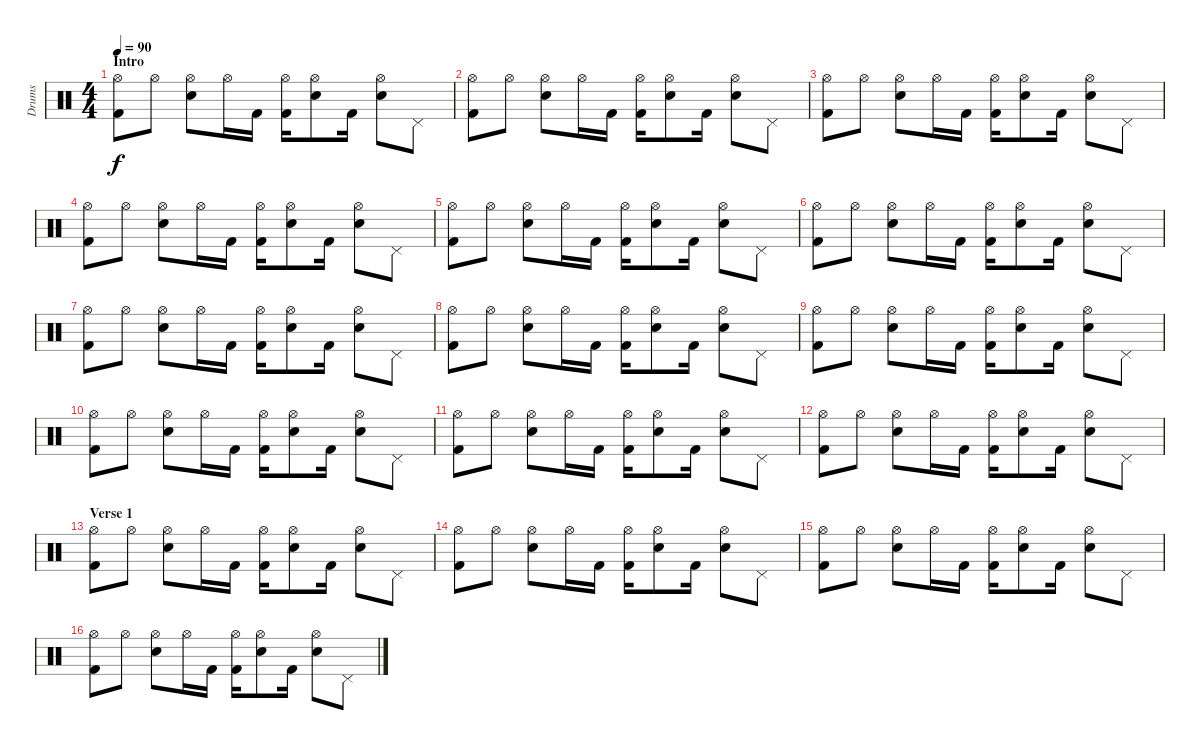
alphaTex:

\track ("Drums" "Drums") {instrument percussion}
\staff {score}
\articulation defaults
\ts (4 4)
\section ("" "Intro")
\tempo 90
\clef neutral
\ks c
("Kick (hit) 2" "Hi-Hat (open)").8{dy f} "Hi-Hat (open)".8 ("Electric Snare (hit)" "Hi-Hat (open)").8 "Hi-Hat (open)".16 "Kick (hit) 2".16 ("Kick (hit) 2" "Hi-Hat (open)").16 ("Electric Snare (hit)" "Hi-Hat (open)").8 "Kick (hit) 2".16 ("Electric Snare (hit)" "Hi-Hat (open)").8 "Pedal Hi-Hat (hit)".8 |
("Kick (hit) 2" "Hi-Hat (open)").8 "Hi-Hat (open)".8 ("Electric Snare (hit)" "Hi-Hat (open)").8 "Hi-Hat (open)".16 "Kick (hit) 2".16 ("Kick (hit) 2" "Hi-Hat (open)").16 ("Electric Snare (hit)" "Hi-Hat (open)").8 "Kick (hit) 2".16 ("Electric Snare (hit)" "Hi-Hat (open)").8 "Pedal Hi-Hat (hit)".8 |
("Kick (hit) 2" "Hi-Hat (open)").8 "Hi-Hat (open)".8 ("Electric Snare (hit)" "Hi-Hat (open)").8 "Hi-Hat (open)".16 "Kick (hit) 2".16 ("Kick (hit) 2" "Hi-Hat (open)").16 ("Electric Snare (hit)" "Hi-Hat (open)").8 "Kick (hit) 2".16 ("Electric Snare (hit)" "Hi-Hat (open)").8 "Pedal Hi-Hat (hit)".8 |
("Kick (hit) 2" "Hi-Hat (open)").8 "Hi-Hat (open)".8 ("Electric Snare (hit)" "Hi-Hat (open)").8 "Hi-Hat (open)".16 "Kick (hit) 2".16 ("Kick (hit) 2" "Hi-Hat (open)").16 ("Electric Snare (hit)" "Hi-Hat (open)").8 "Kick (hit) 2".16 ("Electric Snare (hit)" "Hi-Hat (open)").8 "Pedal Hi-Hat (hit)".8 |
("Kick (hit) 2" "Hi-Hat (open)").8 "Hi-Hat (open)".8 ("Electric Snare (hit)" "Hi-Hat (open)").8 "Hi-Hat (open)".16 "Kick (hit) 2".16 ("Kick (hit) 2" "Hi-Hat (open)").16 ("Electric Snare (hit)" "Hi-Hat (open)").8 "Kick (hit) 2".16 ("Electric Snare (hit)" "Hi-Hat (open)").8 "Pedal Hi-Hat (hit)".8 |
("Kick (hit) 2" "Hi-Hat (open)").8 "Hi-Hat (open)".8 ("Electric Snare (hit)" "Hi-Hat (open)").8 "Hi-Hat (open)".16 "Kick (hit) 2".16 ("Kick (hit) 2" "Hi-Hat (open)").16 ("Electric Snare (hit)" "Hi-Hat (open)").8 "Kick (hit) 2".16 ("Electric Snare (hit)" "Hi-Hat (open)").8 "Pedal Hi-Hat (hit)".8 |
("Kick (hit) 2" "Hi-Hat (open)").8 "Hi-Hat (open)".8 ("Electric Snare (hit)" "Hi-Hat (open)").8 "Hi-Hat (open)".16 "Kick (hit) 2".16 ("Kick (hit) 2" "Hi-Hat (open)").16 ("Electric Snare (hit)" "Hi-Hat (open)").8 "Kick (hit) 2".16 ("Electric Snare (hit)" "Hi-Hat (open)").8 "Pedal Hi-Hat (hit)".8 |
("Kick (hit) 2" "Hi-Hat (open)").8 "Hi-Hat (open)".8 ("Electric Snare (hit)" "Hi-Hat (open)").8 "Hi-Hat (open)".16 "Kick (hit) 2".16 ("Kick (hit) 2" "Hi-Hat (open)").16 ("Electric Snare (hit)" "Hi-Hat (open)").8 "Kick (hit) 2".16 ("Electric Snare (hit)" "Hi-Hat (open)").8 "Pedal Hi-Hat (hit)".8 |
("Kick (hit) 2" "Hi-Hat (open)").8 "Hi-Hat (open)".8 ("Electric Snare (hit)" "Hi-Hat (open)").8 "Hi-Hat (open)".16 "Kick (hit) 2".16 ("Kick (hit) 2" "Hi-Hat (open)").16 ("Electric Snare (hit)" "Hi-Hat (open)").8 "Kick (hit) 2".16 ("Electric Snare (hit)" "Hi-Hat (open)").8 "Pedal Hi-Hat (hit)".8 |
("Kick (hit) 2" "Hi-Hat (open)").8 "Hi-Hat (open)".8 ("Electric Snare (hit)" "Hi-Hat (open)").8 "Hi-Hat (open)".16 "Kick (hit) 2".16 ("Kick (hit) 2" "Hi-Hat (open)").16 ("Electric Snare (hit)" "Hi-Hat (open)").8 "Kick (hit) 2".16 ("Electric Snare (hit)" "Hi-Hat (open)").8 "Pedal Hi-Hat (hit)".8 |
("Kick (hit) 2" "Hi-Hat (open)").8 "Hi-Hat (open)".8 ("Electric Snare (hit)" "Hi-Hat (open)").8 "Hi-Hat (open)".16 "Kick (hit) 2".16 ("Kick (hit) 2" "Hi-Hat (open)").16 ("Electric Snare (hit)" "Hi-Hat (open)").8 "Kick (hit) 2".16 ("Electric Snare (hit)" "Hi-Hat (open)").8 "Pedal Hi-Hat (hit)".8 |
("Kick (hit) 2" "Hi-Hat (open)").8 "Hi-Hat (open)".8 ("Electric Snare (hit)" "Hi-Hat (open)").8 "Hi-Hat (open)".16 "Kick (hit) 2".16 ("Kick (hit) 2" "Hi-Hat (open)").16 ("Electric Snare (hit)" "Hi-Hat (open)").8 "Kick (hit) 2".16 ("Electric Snare (hit)" "Hi-Hat (open)").8 "Pedal Hi-Hat (hit)".8 |
\section ("" "Verse 1")
("Kick (hit) 2" "Hi-Hat (open)").8 "Hi-Hat (open)".8 ("Electric Snare (hit)" "Hi-Hat (open)").8 "Hi-Hat (open)".16 "Kick (hit) 2".16 ("Kick (hit) 2" "Hi-Hat (open)").16 ("Electric Snare (hit)" "Hi-Hat (open)").8 "Kick (hit) 2".16 ("Electric Snare (hit)" "Hi-Hat (open)").8 "Pedal Hi-Hat (hit)".8 |
("Kick (hit) 2" "Hi-Hat (open)").8 "Hi-Hat (open)".8 ("Electric Snare (hit)" "Hi-Hat (open)").8 "Hi-Hat (open)".16 "Kick (hit) 2".16 ("Kick (hit) 2" "Hi-Hat (open)").16 ("Electric Snare (hit)" "Hi-Hat (open)").8 "Kick (hit) 2".16 ("Electric Snare (hit)" "Hi-Hat (open)").8 "Pedal Hi-Hat (hit)".8 |
("Kick (hit) 2" "Hi-Hat (open)").8 "Hi-Hat (open)".8 ("Electric Snare (hit)" "Hi-Hat (open)").8 "Hi-Hat (open)".16 "Kick (hit) 2".16 ("Kick (hit) 2" "Hi-Hat (open)").16 ("Electric Snare (hit)" "Hi-Hat (open)").8 "Kick (hit) 2".16 ("Electric Snare (hit)" "Hi-Hat (open)").8 "Pedal Hi-Hat (hit)".8 |
("Kick (hit) 2" "Hi-Hat (open)").8 "Hi-Hat (open)".8 ("Electric Snare (hit)" "Hi-Hat (open)").8 "Hi-Hat (open)".16 "Kick (hit) 2".16 ("Kick (hit) 2" "Hi-Hat (open)").16 ("Electric Snare (hit)" "Hi-Hat (open)").8 "Kick (hit) 2".16 ("Electric Snare (hit)" "Hi-Hat (open)").8 "Pedal Hi-Hat (hit)".8
